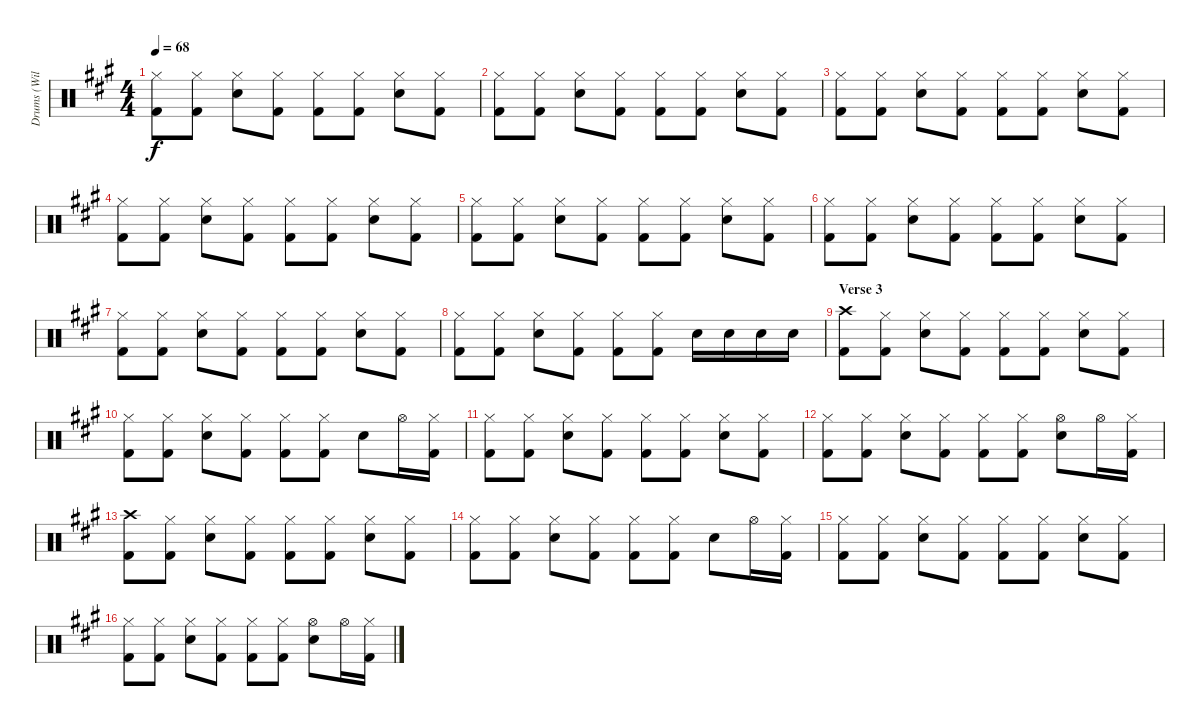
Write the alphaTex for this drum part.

\track ("Drums (Will Champion)" "Drums (Wil") {instrument percussion}
\staff {score}
\articulation defaults
\ts (4 4)
\tempo 68
\clef neutral
\ks a
("Kick (hit) 2" "Hi-Hat (closed)").8{dy f} ("Kick (hit) 2" "Hi-Hat (closed)").8 ("Snare (hit) 2" "Hi-Hat (closed)").8 ("Kick (hit) 2" "Hi-Hat (closed)").8 ("Kick (hit) 2" "Hi-Hat (closed)").8 ("Kick (hit) 2" "Hi-Hat (closed)").8 ("Snare (hit) 2" "Hi-Hat (closed)").8 ("Kick (hit) 2" "Hi-Hat (closed)").8 |
("Kick (hit) 2" "Hi-Hat (closed)").8 ("Kick (hit) 2" "Hi-Hat (closed)").8 ("Snare (hit) 2" "Hi-Hat (closed)").8 ("Kick (hit) 2" "Hi-Hat (closed)").8 ("Kick (hit) 2" "Hi-Hat (closed)").8 ("Kick (hit) 2" "Hi-Hat (closed)").8 ("Snare (hit) 2" "Hi-Hat (closed)").8 ("Kick (hit) 2" "Hi-Hat (closed)").8 |
("Kick (hit) 2" "Hi-Hat (closed)").8 ("Kick (hit) 2" "Hi-Hat (closed)").8 ("Snare (hit) 2" "Hi-Hat (closed)").8 ("Kick (hit) 2" "Hi-Hat (closed)").8 ("Kick (hit) 2" "Hi-Hat (closed)").8 ("Kick (hit) 2" "Hi-Hat (closed)").8 ("Snare (hit) 2" "Hi-Hat (closed)").8 ("Kick (hit) 2" "Hi-Hat (closed)").8 |
("Kick (hit) 2" "Hi-Hat (closed)").8 ("Kick (hit) 2" "Hi-Hat (closed)").8 ("Snare (hit) 2" "Hi-Hat (closed)").8 ("Kick (hit) 2" "Hi-Hat (closed)").8 ("Kick (hit) 2" "Hi-Hat (closed)").8 ("Kick (hit) 2" "Hi-Hat (closed)").8 ("Snare (hit) 2" "Hi-Hat (closed)").8 ("Kick (hit) 2" "Hi-Hat (closed)").8 |
("Kick (hit) 2" "Hi-Hat (closed)").8 ("Kick (hit) 2" "Hi-Hat (closed)").8 ("Snare (hit) 2" "Hi-Hat (closed)").8 ("Kick (hit) 2" "Hi-Hat (closed)").8 ("Kick (hit) 2" "Hi-Hat (closed)").8 ("Kick (hit) 2" "Hi-Hat (closed)").8 ("Snare (hit) 2" "Hi-Hat (closed)").8 ("Kick (hit) 2" "Hi-Hat (closed)").8 |
("Kick (hit) 2" "Hi-Hat (closed)").8 ("Kick (hit) 2" "Hi-Hat (closed)").8 ("Snare (hit) 2" "Hi-Hat (closed)").8 ("Kick (hit) 2" "Hi-Hat (closed)").8 ("Kick (hit) 2" "Hi-Hat (closed)").8 ("Kick (hit) 2" "Hi-Hat (closed)").8 ("Snare (hit) 2" "Hi-Hat (closed)").8 ("Kick (hit) 2" "Hi-Hat (closed)").8 |
("Kick (hit) 2" "Hi-Hat (closed)").8 ("Kick (hit) 2" "Hi-Hat (closed)").8 ("Snare (hit) 2" "Hi-Hat (closed)").8 ("Kick (hit) 2" "Hi-Hat (closed)").8 ("Kick (hit) 2" "Hi-Hat (closed)").8 ("Kick (hit) 2" "Hi-Hat (closed)").8 ("Snare (hit) 2" "Hi-Hat (closed)").8 ("Kick (hit) 2" "Hi-Hat (closed)").8 |
("Kick (hit) 2" "Hi-Hat (closed)").8 ("Kick (hit) 2" "Hi-Hat (closed)").8 ("Snare (hit) 2" "Hi-Hat (closed)").8 ("Kick (hit) 2" "Hi-Hat (closed)").8 ("Kick (hit) 2" "Hi-Hat (closed)").8 ("Kick (hit) 2" "Hi-Hat (closed)").8 "Snare (hit) 2".16 "Snare (hit) 2".16 "Snare (hit) 2".16 "Snare (hit) 2".16 |
\section ("" "Verse 3")
("Kick (hit) 2" "Crash high (hit)").8 ("Kick (hit) 2" "Hi-Hat (closed)").8 ("Snare (hit) 2" "Hi-Hat (closed)").8 ("Kick (hit) 2" "Hi-Hat (closed)").8 ("Kick (hit) 2" "Hi-Hat (closed)").8 ("Kick (hit) 2" "Hi-Hat (closed)").8 ("Snare (hit) 2" "Hi-Hat (closed)").8 ("Kick (hit) 2" "Hi-Hat (closed)").8 |
("Kick (hit) 2" "Hi-Hat (closed)").8 ("Kick (hit) 2" "Hi-Hat (closed)").8 ("Snare (hit) 2" "Hi-Hat (closed)").8 ("Kick (hit) 2" "Hi-Hat (closed)").8 ("Kick (hit) 2" "Hi-Hat (closed)").8 ("Kick (hit) 2" "Hi-Hat (closed)").8 "Snare (hit) 2".8 "Hi-Hat (open)".16 ("Hi-Hat (closed)" "Kick (hit) 2").16 |
("Kick (hit) 2" "Hi-Hat (closed)").8 ("Kick (hit) 2" "Hi-Hat (closed)").8 ("Snare (hit) 2" "Hi-Hat (closed)").8 ("Kick (hit) 2" "Hi-Hat (closed)").8 ("Kick (hit) 2" "Hi-Hat (closed)").8 ("Kick (hit) 2" "Hi-Hat (closed)").8 ("Snare (hit) 2" "Hi-Hat (closed)").8 ("Kick (hit) 2" "Hi-Hat (closed)").8 |
("Kick (hit) 2" "Hi-Hat (closed)").8 ("Kick (hit) 2" "Hi-Hat (closed)").8 ("Snare (hit) 2" "Hi-Hat (closed)").8 ("Kick (hit) 2" "Hi-Hat (closed)").8 ("Kick (hit) 2" "Hi-Hat (closed)").8 ("Kick (hit) 2" "Hi-Hat (closed)").8 ("Hi-Hat (open)" "Snare (hit) 2").8 "Hi-Hat (open)".16 ("Hi-Hat (closed)" "Kick (hit) 2").16 |
("Kick (hit) 2" "Crash high (hit)").8 ("Kick (hit) 2" "Hi-Hat (closed)").8 ("Snare (hit) 2" "Hi-Hat (closed)").8 ("Kick (hit) 2" "Hi-Hat (closed)").8 ("Kick (hit) 2" "Hi-Hat (closed)").8 ("Kick (hit) 2" "Hi-Hat (closed)").8 ("Snare (hit) 2" "Hi-Hat (closed)").8 ("Kick (hit) 2" "Hi-Hat (closed)").8 |
("Kick (hit) 2" "Hi-Hat (closed)").8 ("Kick (hit) 2" "Hi-Hat (closed)").8 ("Snare (hit) 2" "Hi-Hat (closed)").8 ("Kick (hit) 2" "Hi-Hat (closed)").8 ("Kick (hit) 2" "Hi-Hat (closed)").8 ("Kick (hit) 2" "Hi-Hat (closed)").8 "Snare (hit) 2".8 "Hi-Hat (open)".16 ("Hi-Hat (closed)" "Kick (hit) 2").16 |
("Kick (hit) 2" "Hi-Hat (closed)").8 ("Kick (hit) 2" "Hi-Hat (closed)").8 ("Snare (hit) 2" "Hi-Hat (closed)").8 ("Kick (hit) 2" "Hi-Hat (closed)").8 ("Kick (hit) 2" "Hi-Hat (closed)").8 ("Kick (hit) 2" "Hi-Hat (closed)").8 ("Snare (hit) 2" "Hi-Hat (closed)").8 ("Kick (hit) 2" "Hi-Hat (closed)").8 |
("Kick (hit) 2" "Hi-Hat (closed)").8 ("Kick (hit) 2" "Hi-Hat (closed)").8 ("Snare (hit) 2" "Hi-Hat (closed)").8 ("Kick (hit) 2" "Hi-Hat (closed)").8 ("Kick (hit) 2" "Hi-Hat (closed)").8 ("Kick (hit) 2" "Hi-Hat (closed)").8 ("Hi-Hat (open)" "Snare (hit) 2").8 "Hi-Hat (open)".16 ("Hi-Hat (closed)" "Kick (hit) 2").16
